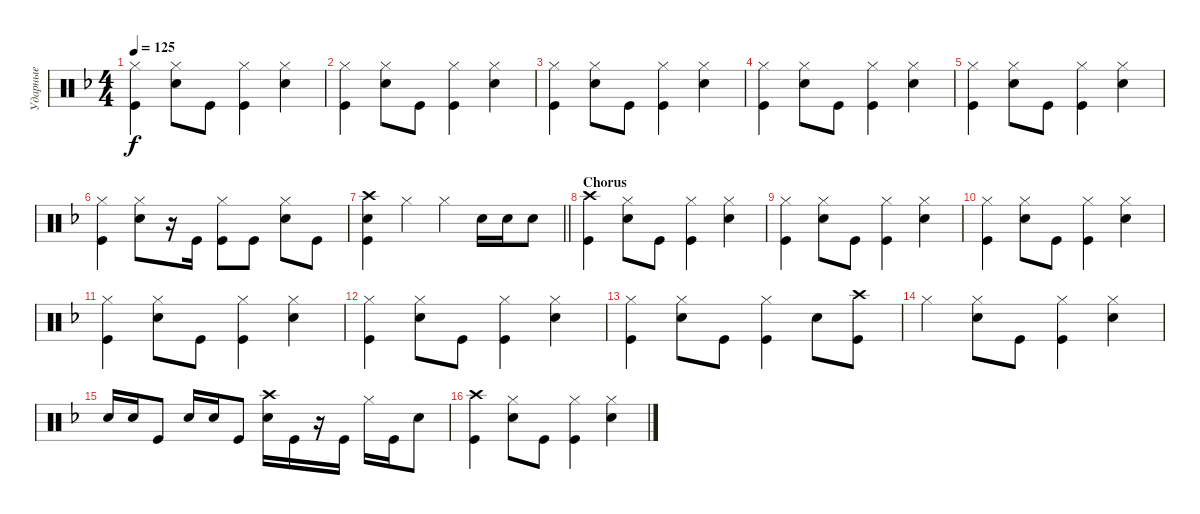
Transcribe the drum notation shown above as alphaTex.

\track ("Ударные" "Ударные") {instrument percussion}
\staff {score}
\articulation defaults
\ts (4 4)
\tempo 125
\clef neutral
\ks dminor
("Hi-Hat (closed)" "Kick (hit)").4{dy f} ("Hi-Hat (closed)" "Snare (hit) 2").8 "Kick (hit)".8 ("Hi-Hat (closed)" "Kick (hit)").4 ("Hi-Hat (closed)" "Snare (hit) 2").4 |
("Hi-Hat (closed)" "Kick (hit)").4 ("Hi-Hat (closed)" "Snare (hit) 2").8 "Kick (hit)".8 ("Hi-Hat (closed)" "Kick (hit)").4 ("Hi-Hat (closed)" "Snare (hit) 2").4 |
("Hi-Hat (closed)" "Kick (hit)").4 ("Hi-Hat (closed)" "Snare (hit) 2").8 "Kick (hit)".8 ("Hi-Hat (closed)" "Kick (hit)").4 ("Hi-Hat (closed)" "Snare (hit) 2").4 |
("Hi-Hat (closed)" "Kick (hit)").4 ("Hi-Hat (closed)" "Snare (hit) 2").8 "Kick (hit)".8 ("Hi-Hat (closed)" "Kick (hit)").4 ("Hi-Hat (closed)" "Snare (hit) 2").4 |
("Hi-Hat (closed)" "Kick (hit)").4 ("Hi-Hat (closed)" "Snare (hit) 2").8 "Kick (hit)".8 ("Hi-Hat (closed)" "Kick (hit)").4 ("Hi-Hat (closed)" "Snare (hit) 2").4 |
("Hi-Hat (closed)" "Kick (hit)").4 ("Hi-Hat (closed)" "Snare (hit) 2").8 r.16 "Kick (hit)".16 ("Kick (hit)" "Hi-Hat (closed)").8 "Kick (hit)".8 ("Snare (hit) 2" "Hi-Hat (closed)").8 "Kick (hit)".8 |
\barLineRight lightlight
("Kick (hit)" "Crash high (hit)" "Snare (hit) 2").4 "Hi-Hat (closed)".4 "Hi-Hat (closed)".4 "Snare (hit) 2".16 "Snare (hit) 2".16 "Snare (hit) 2".8 |
\section ("" "Chorus")
("Crash high (hit)" "Kick (hit)").4 ("Hi-Hat (closed)" "Snare (hit) 2").8 "Kick (hit)".8 ("Hi-Hat (closed)" "Kick (hit)").4 ("Hi-Hat (closed)" "Snare (hit) 2").4 |
("Hi-Hat (closed)" "Kick (hit)").4 ("Hi-Hat (closed)" "Snare (hit) 2").8 "Kick (hit)".8 ("Hi-Hat (closed)" "Kick (hit)").4 ("Hi-Hat (closed)" "Snare (hit) 2").4 |
("Hi-Hat (closed)" "Kick (hit)").4 ("Hi-Hat (closed)" "Snare (hit) 2").8 "Kick (hit)".8 ("Hi-Hat (closed)" "Kick (hit)").4 ("Hi-Hat (closed)" "Snare (hit) 2").4 |
("Hi-Hat (closed)" "Kick (hit)").4 ("Hi-Hat (closed)" "Snare (hit) 2").8 "Kick (hit)".8 ("Hi-Hat (closed)" "Kick (hit)").4 ("Hi-Hat (closed)" "Snare (hit) 2").4 |
("Hi-Hat (closed)" "Kick (hit)").4 ("Hi-Hat (closed)" "Snare (hit) 2").8 "Kick (hit)".8 ("Hi-Hat (closed)" "Kick (hit)").4 ("Hi-Hat (closed)" "Snare (hit) 2").4 |
("Hi-Hat (closed)" "Kick (hit)").4 ("Hi-Hat (closed)" "Snare (hit) 2").8 "Kick (hit)".8 ("Hi-Hat (closed)" "Kick (hit)").4 "Snare (hit) 2".8 ("Kick (hit)" "Crash high (hit)").8 |
"Hi-Hat (closed)".4 ("Hi-Hat (closed)" "Snare (hit) 2").8 "Kick (hit)".8 ("Hi-Hat (closed)" "Kick (hit)").4 ("Hi-Hat (closed)" "Snare (hit) 2").4 |
"Snare (hit) 2".16 "Snare (hit) 2".16 "Kick (hit)".8 "Snare (hit) 2".16 "Snare (hit) 2".16 "Kick (hit)".8 ("Snare (hit) 2" "Crash high (hit)").16 "Kick (hit)".16 r.16 "Kick (hit)".16 "Hi-Hat (closed)".16 "Kick (hit)".16 "Snare (hit) 2".8 |
("Crash high (hit)" "Kick (hit)").4 ("Hi-Hat (closed)" "Snare (hit) 2").8 "Kick (hit)".8 ("Hi-Hat (closed)" "Kick (hit)").4 ("Hi-Hat (closed)" "Snare (hit) 2").4
